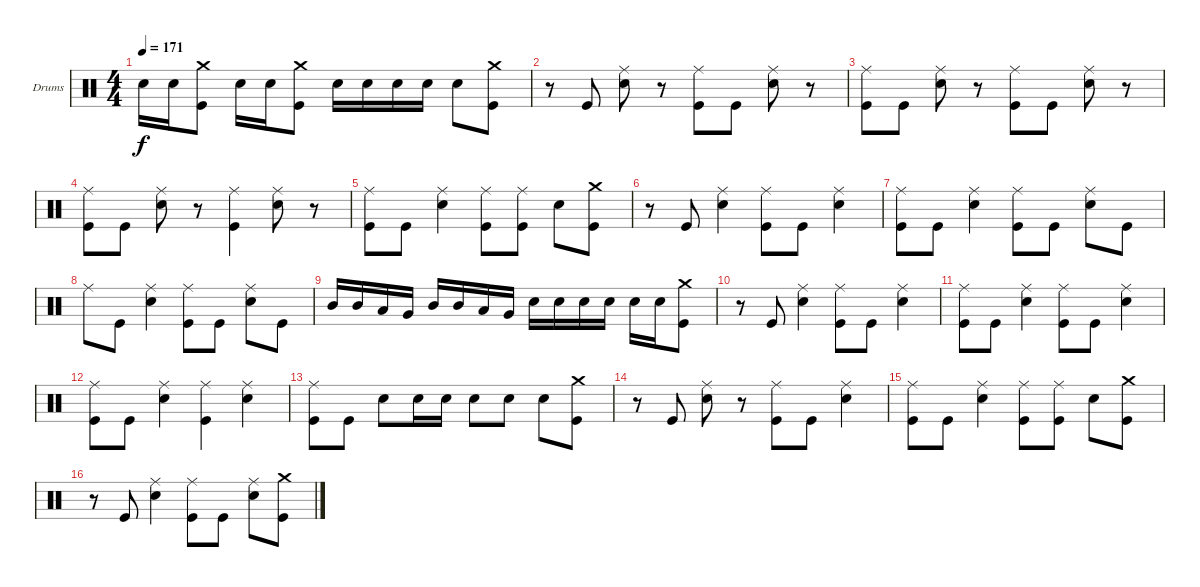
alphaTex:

\bracketExtendMode groupsimilarinstruments
\firstSystemTrackNameOrientation horizontal
\otherSystemsTrackNameOrientation horizontal
\track ("Vinny Appice" "Drums") {instrument percussion}
\staff {score}
\articulation defaults
\ts (4 4)
\tempo 171
\clef neutral
\ks c "Snare (hit) 2".16{dy f} "Snare (hit) 2".16
("Kick (hit)" "Crash medium (hit)").8 "Snare (hit) 2".16 "Snare (hit) 2".16 ("Kick (hit)" "Crash medium (hit)").8 "Snare (hit) 2".16 "Snare (hit) 2".16 "Snare (hit) 2".16 "Snare (hit) 2".16 "Snare (hit) 2".8 ("Crash medium (hit)" "Kick (hit)").8 |
r.8 "Kick (hit)".8 ("Ride (middle)" "Snare (hit) 2").8 r.8 ("Kick (hit)" "Ride (middle)").8 "Kick (hit)".8 ("Snare (hit) 2" "Ride (middle)").8 r.8 |
("Ride (middle)" "Kick (hit)").8 "Kick (hit)".8 ("Ride (middle)" "Snare (hit) 2").8 r.8 ("Ride (middle)" "Kick (hit)").8 "Kick (hit)".8 ("Ride (middle)" "Snare (hit) 2").8 r.8 |
("Kick (hit)" "Ride (middle)").8 "Kick (hit)".8 ("Ride (middle)" "Snare (hit) 2").8 r.8 ("Kick (hit)" "Ride (middle)").4 ("Ride (middle)" "Snare (hit) 2").8 r.8 |
("Ride (middle)" "Kick (hit)").8 "Kick (hit)".8 ("Ride (middle)" "Snare (hit) 2").4 ("Ride (middle)" "Kick (hit)").8 ("Ride (middle)" "Kick (hit)").8 "Snare (hit) 2".8 ("Kick (hit)" "Crash medium (hit)").8 |
r.8 "Kick (hit)".8 ("Snare (hit) 2" "Ride (middle)").4 ("Kick (hit)" "Ride (middle)").8 "Kick (hit)".8 ("Snare (hit) 2" "Ride (middle)").4 |
("Ride (middle)" "Kick (hit)").8 "Kick (hit)".8 ("Ride (middle)" "Snare (hit) 2").4 ("Ride (middle)" "Kick (hit)").8 "Kick (hit)".8 ("Ride (middle)" "Snare (hit) 2").8 "Kick (hit)".8 |
"Ride (middle)".8 "Kick (hit)".8 ("Snare (hit) 2" "Ride (middle)").4 ("Ride (middle)" "Kick (hit)").8 "Kick (hit)".8 ("Snare (hit) 2" "Ride (middle)").8 "Kick (hit)".8 |
"Mid Tom (hit)".16 "Mid Tom (hit)".16 "Low Tom (hit)".16 "Very Low Tom (hit)".16 "Mid Tom (hit)".16 "Mid Tom (hit)".16 "Low Tom (hit)".16 "Very Low Tom (hit)".16 "Snare (hit) 2".16 "Snare (hit) 2".16 "Snare (hit) 2".16 "Snare (hit) 2".16 "Snare (hit) 2".16 "Snare (hit) 2".16 ("Kick (hit)" "Crash medium (hit)").8 |
r.8 "Kick (hit)".8 ("Snare (hit) 2" "Ride (middle)").4 ("Kick (hit)" "Ride (middle)").8 "Kick (hit)".8 ("Snare (hit) 2" "Ride (middle)").4 |
("Ride (middle)" "Kick (hit)").8 "Kick (hit)".8 ("Ride (middle)" "Snare (hit) 2").4 ("Ride (middle)" "Kick (hit)").8 "Kick (hit)".8 ("Ride (middle)" "Snare (hit) 2").4 |
("Ride (middle)" "Kick (hit)").8 "Kick (hit)".8 ("Ride (middle)" "Snare (hit) 2").4 ("Ride (middle)" "Kick (hit)").4 ("Snare (hit) 2" "Ride (middle)").4 |
("Kick (hit)" "Ride (middle)").8 "Kick (hit)".8 "Snare (hit) 2".8 "Snare (hit) 2".16 "Snare (hit) 2".16 "Snare (hit) 2".8 "Snare (hit) 2".8 "Snare (hit) 2".8 ("Crash medium (hit)" "Kick (hit)").8 |
r.8 "Kick (hit)".8 ("Ride (middle)" "Snare (hit) 2").8 r.8 ("Ride (middle)" "Kick (hit)").8 "Kick (hit)".8 ("Ride (middle)" "Snare (hit) 2").4 |
("Kick (hit)" "Ride (middle)").8 "Kick (hit)".8 ("Ride (middle)" "Snare (hit) 2").4 ("Ride (middle)" "Kick (hit)").8 ("Ride (middle)" "Kick (hit)").8 "Snare (hit) 2".8 ("Crash medium (hit)" "Kick (hit)").8 |
r.8 "Kick (hit)".8 ("Ride (middle)" "Snare (hit) 2").4 ("Ride (middle)" "Kick (hit)").8 "Kick (hit)".8 ("Ride (middle)" "Snare (hit) 2").8 ("Crash medium (hit)" "Kick (hit)").8
